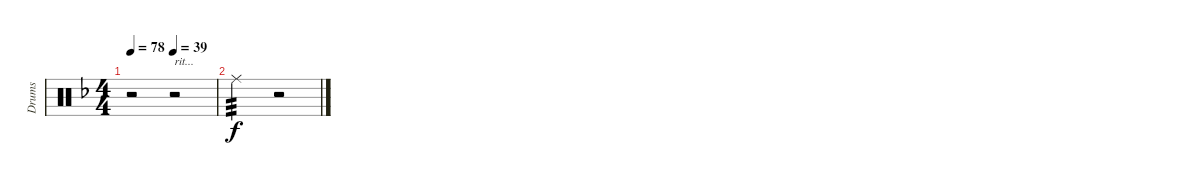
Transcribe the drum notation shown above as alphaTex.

\track ("Drums" "Drums") {instrument percussion}
\staff {score}
\articulation defaults
\ts (4 4)
\tempo 78
\tempo (39 0.5)
\clef neutral
\ks f
r.2{dy f} r.2{txt "rit..."} |
"Ride (middle)".2{tp 3} r.2
